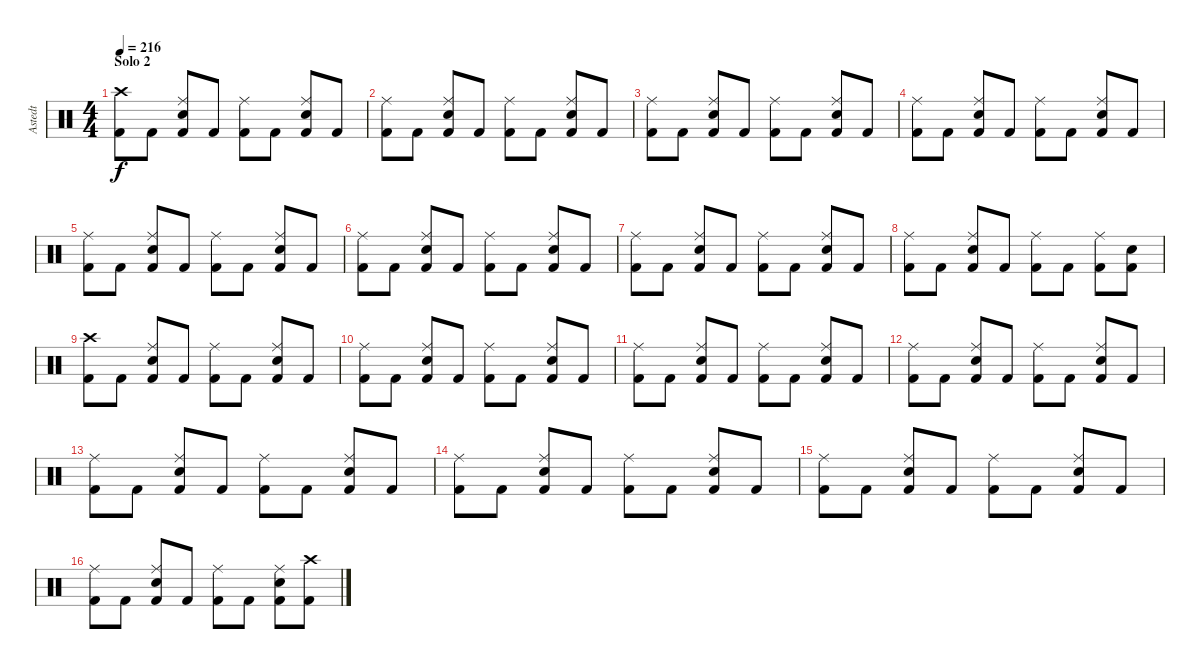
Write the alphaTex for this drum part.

\track ("Astedt" "Astedt") {instrument percussion}
\staff {score}
\articulation defaults
\ts (4 4)
\section ("" "Solo 2")
\tempo 216
\clef neutral
\ks c
("Crash high (hit)" "Kick (hit) 2").8{dy f} "Kick (hit) 2".8 ("Ride (middle)" "Snare (hit) 2" "Kick (hit) 2").8 "Kick (hit) 2".8 ("Ride (middle)" "Kick (hit) 2").8 "Kick (hit) 2".8 ("Ride (middle)" "Snare (hit) 2" "Kick (hit) 2").8 "Kick (hit) 2".8 |
("Ride (middle)" "Kick (hit) 2").8 "Kick (hit) 2".8 ("Ride (middle)" "Snare (hit) 2" "Kick (hit) 2").8 "Kick (hit) 2".8 ("Ride (middle)" "Kick (hit) 2").8 "Kick (hit) 2".8 ("Ride (middle)" "Snare (hit) 2" "Kick (hit) 2").8 "Kick (hit) 2".8 |
("Ride (middle)" "Kick (hit) 2").8 "Kick (hit) 2".8 ("Ride (middle)" "Snare (hit) 2" "Kick (hit) 2").8 "Kick (hit) 2".8 ("Ride (middle)" "Kick (hit) 2").8 "Kick (hit) 2".8 ("Ride (middle)" "Snare (hit) 2" "Kick (hit) 2").8 "Kick (hit) 2".8 |
("Ride (middle)" "Kick (hit) 2").8 "Kick (hit) 2".8 ("Ride (middle)" "Snare (hit) 2" "Kick (hit) 2").8 "Kick (hit) 2".8 ("Ride (middle)" "Kick (hit) 2").8 "Kick (hit) 2".8 ("Ride (middle)" "Snare (hit) 2" "Kick (hit) 2").8 "Kick (hit) 2".8 |
("Ride (middle)" "Kick (hit) 2").8 "Kick (hit) 2".8 ("Ride (middle)" "Snare (hit) 2" "Kick (hit) 2").8 "Kick (hit) 2".8 ("Ride (middle)" "Kick (hit) 2").8 "Kick (hit) 2".8 ("Ride (middle)" "Snare (hit) 2" "Kick (hit) 2").8 "Kick (hit) 2".8 |
("Ride (middle)" "Kick (hit) 2").8 "Kick (hit) 2".8 ("Ride (middle)" "Snare (hit) 2" "Kick (hit) 2").8 "Kick (hit) 2".8 ("Ride (middle)" "Kick (hit) 2").8 "Kick (hit) 2".8 ("Ride (middle)" "Snare (hit) 2" "Kick (hit) 2").8 "Kick (hit) 2".8 |
("Ride (middle)" "Kick (hit) 2").8 "Kick (hit) 2".8 ("Ride (middle)" "Snare (hit) 2" "Kick (hit) 2").8 "Kick (hit) 2".8 ("Ride (middle)" "Kick (hit) 2").8 "Kick (hit) 2".8 ("Ride (middle)" "Snare (hit) 2" "Kick (hit) 2").8 "Kick (hit) 2".8 |
("Ride (middle)" "Kick (hit) 2").8 "Kick (hit) 2".8 ("Ride (middle)" "Snare (hit) 2" "Kick (hit) 2").8 "Kick (hit) 2".8 ("Ride (middle)" "Kick (hit) 2").8 "Kick (hit) 2".8 ("Ride (middle)" "Kick (hit) 2").8 ("Snare (hit) 2" "Kick (hit) 2").8 |
("Crash high (hit)" "Kick (hit) 2").8 "Kick (hit) 2".8 ("Ride (middle)" "Snare (hit) 2" "Kick (hit) 2").8 "Kick (hit) 2".8 ("Ride (middle)" "Kick (hit) 2").8 "Kick (hit) 2".8 ("Ride (middle)" "Snare (hit) 2" "Kick (hit) 2").8 "Kick (hit) 2".8 |
("Ride (middle)" "Kick (hit) 2").8 "Kick (hit) 2".8 ("Ride (middle)" "Snare (hit) 2" "Kick (hit) 2").8 "Kick (hit) 2".8 ("Ride (middle)" "Kick (hit) 2").8 "Kick (hit) 2".8 ("Ride (middle)" "Snare (hit) 2" "Kick (hit) 2").8 "Kick (hit) 2".8 |
("Ride (middle)" "Kick (hit) 2").8 "Kick (hit) 2".8 ("Ride (middle)" "Snare (hit) 2" "Kick (hit) 2").8 "Kick (hit) 2".8 ("Ride (middle)" "Kick (hit) 2").8 "Kick (hit) 2".8 ("Ride (middle)" "Snare (hit) 2" "Kick (hit) 2").8 "Kick (hit) 2".8 |
("Ride (middle)" "Kick (hit) 2").8 "Kick (hit) 2".8 ("Ride (middle)" "Snare (hit) 2" "Kick (hit) 2").8 "Kick (hit) 2".8 ("Ride (middle)" "Kick (hit) 2").8 "Kick (hit) 2".8 ("Ride (middle)" "Snare (hit) 2" "Kick (hit) 2").8 "Kick (hit) 2".8 |
("Ride (middle)" "Kick (hit) 2").8 "Kick (hit) 2".8 ("Ride (middle)" "Snare (hit) 2" "Kick (hit) 2").8 "Kick (hit) 2".8 ("Ride (middle)" "Kick (hit) 2").8 "Kick (hit) 2".8 ("Ride (middle)" "Snare (hit) 2" "Kick (hit) 2").8 "Kick (hit) 2".8 |
("Ride (middle)" "Kick (hit) 2").8 "Kick (hit) 2".8 ("Ride (middle)" "Snare (hit) 2" "Kick (hit) 2").8 "Kick (hit) 2".8 ("Ride (middle)" "Kick (hit) 2").8 "Kick (hit) 2".8 ("Ride (middle)" "Snare (hit) 2" "Kick (hit) 2").8 "Kick (hit) 2".8 |
("Ride (middle)" "Kick (hit) 2").8 "Kick (hit) 2".8 ("Ride (middle)" "Snare (hit) 2" "Kick (hit) 2").8 "Kick (hit) 2".8 ("Ride (middle)" "Kick (hit) 2").8 "Kick (hit) 2".8 ("Ride (middle)" "Snare (hit) 2" "Kick (hit) 2").8 "Kick (hit) 2".8 |
("Ride (middle)" "Kick (hit) 2").8 "Kick (hit) 2".8 ("Ride (middle)" "Snare (hit) 2" "Kick (hit) 2").8 "Kick (hit) 2".8 ("Ride (middle)" "Kick (hit) 2").8 "Kick (hit) 2".8 ("Ride (middle)" "Snare (hit) 2" "Kick (hit) 2").8 ("Crash high (hit)" "Kick (hit) 2").8
